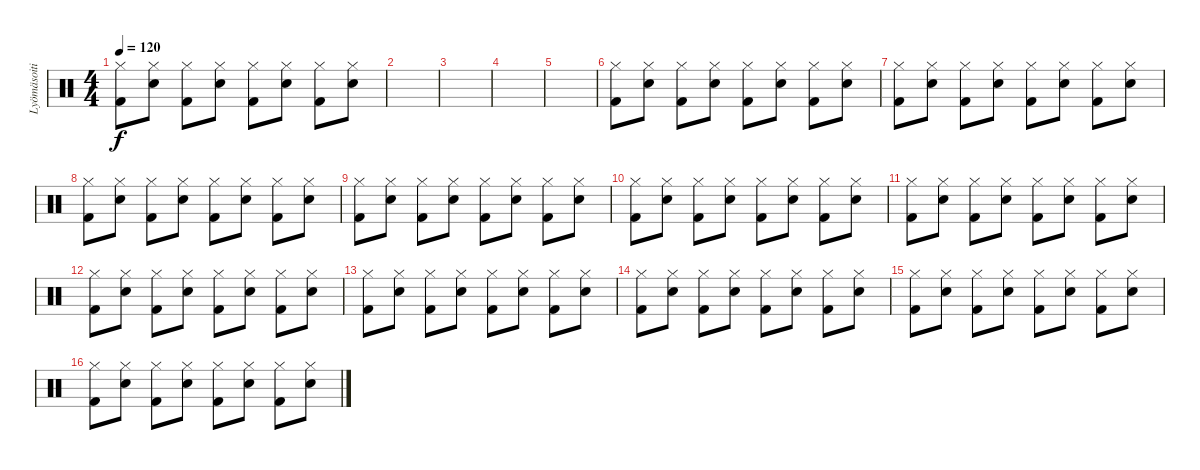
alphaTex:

\track ("Lyömäsoitin" "Lyömäsoiti") {instrument percussion}
\staff {score}
\articulation defaults
\ts (4 4)
\tempo 120
\clef neutral
\ks c
("Hi-Hat (closed)" "Kick (hit) 2").8{dy f} ("Hi-Hat (closed)" "Snare (hit) 2").8 ("Hi-Hat (closed)" "Kick (hit) 2").8 ("Hi-Hat (closed)" "Snare (hit) 2").8 ("Hi-Hat (closed)" "Kick (hit) 2").8 ("Hi-Hat (closed)" "Snare (hit) 2").8 ("Hi-Hat (closed)" "Kick (hit) 2").8 ("Hi-Hat (closed)" "Snare (hit) 2").8 |
|
|
|
|
("Hi-Hat (closed)" "Kick (hit) 2").8 ("Hi-Hat (closed)" "Snare (hit) 2").8 ("Hi-Hat (closed)" "Kick (hit) 2").8 ("Hi-Hat (closed)" "Snare (hit) 2").8 ("Hi-Hat (closed)" "Kick (hit) 2").8 ("Hi-Hat (closed)" "Snare (hit) 2").8 ("Hi-Hat (closed)" "Kick (hit) 2").8 ("Hi-Hat (closed)" "Snare (hit) 2").8 |
("Hi-Hat (closed)" "Kick (hit) 2").8 ("Hi-Hat (closed)" "Snare (hit) 2").8 ("Hi-Hat (closed)" "Kick (hit) 2").8 ("Hi-Hat (closed)" "Snare (hit) 2").8 ("Hi-Hat (closed)" "Kick (hit) 2").8 ("Hi-Hat (closed)" "Snare (hit) 2").8 ("Hi-Hat (closed)" "Kick (hit) 2").8 ("Hi-Hat (closed)" "Snare (hit) 2").8 |
("Hi-Hat (closed)" "Kick (hit) 2").8 ("Hi-Hat (closed)" "Snare (hit) 2").8 ("Hi-Hat (closed)" "Kick (hit) 2").8 ("Hi-Hat (closed)" "Snare (hit) 2").8 ("Hi-Hat (closed)" "Kick (hit) 2").8 ("Hi-Hat (closed)" "Snare (hit) 2").8 ("Hi-Hat (closed)" "Kick (hit) 2").8 ("Hi-Hat (closed)" "Snare (hit) 2").8 |
("Hi-Hat (closed)" "Kick (hit) 2").8 ("Hi-Hat (closed)" "Snare (hit) 2").8 ("Hi-Hat (closed)" "Kick (hit) 2").8 ("Hi-Hat (closed)" "Snare (hit) 2").8 ("Hi-Hat (closed)" "Kick (hit) 2").8 ("Hi-Hat (closed)" "Snare (hit) 2").8 ("Hi-Hat (closed)" "Kick (hit) 2").8 ("Hi-Hat (closed)" "Snare (hit) 2").8 |
("Hi-Hat (closed)" "Kick (hit) 2").8 ("Hi-Hat (closed)" "Snare (hit) 2").8 ("Hi-Hat (closed)" "Kick (hit) 2").8 ("Hi-Hat (closed)" "Snare (hit) 2").8 ("Hi-Hat (closed)" "Kick (hit) 2").8 ("Hi-Hat (closed)" "Snare (hit) 2").8 ("Hi-Hat (closed)" "Kick (hit) 2").8 ("Hi-Hat (closed)" "Snare (hit) 2").8 |
("Hi-Hat (closed)" "Kick (hit) 2").8 ("Hi-Hat (closed)" "Snare (hit) 2").8 ("Hi-Hat (closed)" "Kick (hit) 2").8 ("Hi-Hat (closed)" "Snare (hit) 2").8 ("Hi-Hat (closed)" "Kick (hit) 2").8 ("Hi-Hat (closed)" "Snare (hit) 2").8 ("Hi-Hat (closed)" "Kick (hit) 2").8 ("Hi-Hat (closed)" "Snare (hit) 2").8 |
("Hi-Hat (closed)" "Kick (hit) 2").8 ("Hi-Hat (closed)" "Snare (hit) 2").8 ("Hi-Hat (closed)" "Kick (hit) 2").8 ("Hi-Hat (closed)" "Snare (hit) 2").8 ("Hi-Hat (closed)" "Kick (hit) 2").8 ("Hi-Hat (closed)" "Snare (hit) 2").8 ("Hi-Hat (closed)" "Kick (hit) 2").8 ("Hi-Hat (closed)" "Snare (hit) 2").8 |
("Hi-Hat (closed)" "Kick (hit) 2").8 ("Hi-Hat (closed)" "Snare (hit) 2").8 ("Hi-Hat (closed)" "Kick (hit) 2").8 ("Hi-Hat (closed)" "Snare (hit) 2").8 ("Hi-Hat (closed)" "Kick (hit) 2").8 ("Hi-Hat (closed)" "Snare (hit) 2").8 ("Hi-Hat (closed)" "Kick (hit) 2").8 ("Hi-Hat (closed)" "Snare (hit) 2").8 |
("Hi-Hat (closed)" "Kick (hit) 2").8 ("Hi-Hat (closed)" "Snare (hit) 2").8 ("Hi-Hat (closed)" "Kick (hit) 2").8 ("Hi-Hat (closed)" "Snare (hit) 2").8 ("Hi-Hat (closed)" "Kick (hit) 2").8 ("Hi-Hat (closed)" "Snare (hit) 2").8 ("Hi-Hat (closed)" "Kick (hit) 2").8 ("Hi-Hat (closed)" "Snare (hit) 2").8 |
("Hi-Hat (closed)" "Kick (hit) 2").8 ("Hi-Hat (closed)" "Snare (hit) 2").8 ("Hi-Hat (closed)" "Kick (hit) 2").8 ("Hi-Hat (closed)" "Snare (hit) 2").8 ("Hi-Hat (closed)" "Kick (hit) 2").8 ("Hi-Hat (closed)" "Snare (hit) 2").8 ("Hi-Hat (closed)" "Kick (hit) 2").8 ("Hi-Hat (closed)" "Snare (hit) 2").8 |
("Hi-Hat (closed)" "Kick (hit) 2").8 ("Hi-Hat (closed)" "Snare (hit) 2").8 ("Hi-Hat (closed)" "Kick (hit) 2").8 ("Hi-Hat (closed)" "Snare (hit) 2").8 ("Hi-Hat (closed)" "Kick (hit) 2").8 ("Hi-Hat (closed)" "Snare (hit) 2").8 ("Hi-Hat (closed)" "Kick (hit) 2").8 ("Hi-Hat (closed)" "Snare (hit) 2").8
